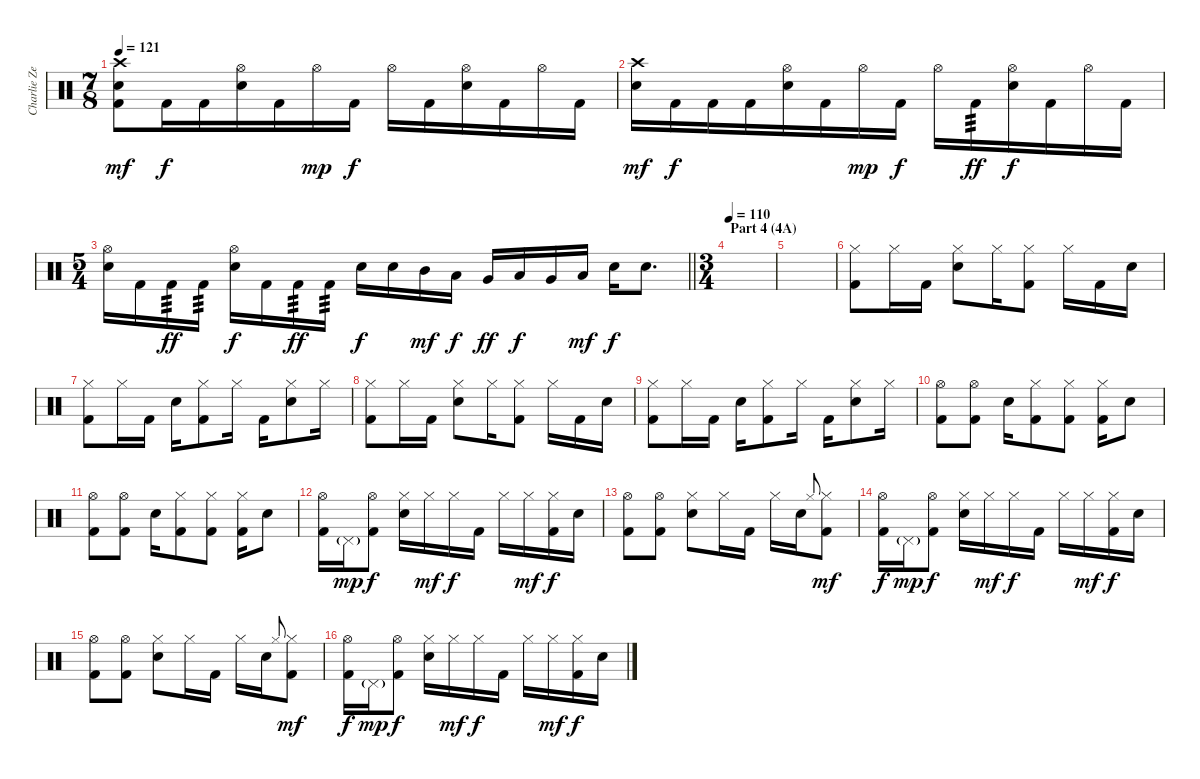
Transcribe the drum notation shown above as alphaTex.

\track ("Charlie Zeleny - Drums" "Charlie Ze") {instrument percussion}
\staff {score}
\articulation defaults
\ts (7 8)
\tempo 121
\clef neutral
\ks c
("Crash high (hit)" "Electric Snare (hit)" "Kick (hit) 2").8{dy mf} "Kick (hit) 2".16{dy f} "Kick (hit) 2".16 ("Hi-Hat (open)" "Electric Snare (hit)").16 "Kick (hit) 2".16 "Hi-Hat (open)".16{dy mp} "Kick (hit) 2".16{dy f} "Hi-Hat (open)".16 "Kick (hit) 2".16 ("Hi-Hat (open)" "Electric Snare (hit)").16 "Kick (hit) 2".16 "Hi-Hat (open)".16 "Kick (hit) 2".16 |
("Crash high (hit)" "Electric Snare (hit)").16{dy mf} "Kick (hit) 2".16{dy f} "Kick (hit) 2".16 "Kick (hit) 2".16 ("Hi-Hat (open)" "Electric Snare (hit)").16 "Kick (hit) 2".16 "Hi-Hat (open)".16{dy mp} "Kick (hit) 2".16{dy f} "Hi-Hat (open)".16 "Kick (hit) 2".16{tp 3 dy ff} ("Hi-Hat (open)" "Electric Snare (hit)").16{dy f} "Kick (hit) 2".16 "Hi-Hat (open)".16 "Kick (hit) 2".16 |
\ts (5 4)
\barLineRight lightlight
("Hi-Hat (open)" "Electric Snare (hit)").16 "Kick (hit) 2".16 "Kick (hit) 2".16{tp 3 dy ff} "Kick (hit) 2".16{tp 3} ("Hi-Hat (open)" "Electric Snare (hit)").16{dy f} "Kick (hit) 2".16 "Kick (hit) 2".16{tp 3 dy ff} "Kick (hit) 2".16{tp 3} "Electric Snare (hit)".16{dy f} "Electric Snare (hit)".16 "Mid Tom (hit)".16{dy mf} "Low Tom (hit)".16{dy f} "Very Low Tom (hit)".16{dy ff} "Low Floor Tom (hit)".16{dy f} "Very Low Tom (hit)".16 "Low Tom (hit)".16{dy mf} "Electric Snare (hit)".16{dy f} "Electric Snare (hit)".8{d} |
\ts (3 4)
\section ("" "Part 4 (4A)")
\tempo 110
|
|
("Hi-Hat (closed)" "Kick (hit) 2").8 "Hi-Hat (closed)".16 "Kick (hit) 2".16 ("Hi-Hat (closed)" "Electric Snare (hit)").8 "Hi-Hat (closed)".16 ("Hi-Hat (closed)" "Kick (hit) 2").8 "Hi-Hat (closed)".16 "Kick (hit) 2".16 "Electric Snare (hit)".16 |
("Hi-Hat (closed)" "Kick (hit) 2").8 "Hi-Hat (closed)".16 "Kick (hit) 2".16 "Electric Snare (hit)".16 ("Hi-Hat (closed)" "Kick (hit) 2").8 "Hi-Hat (closed)".16 "Kick (hit) 2".16 ("Hi-Hat (closed)" "Electric Snare (hit)").8 "Hi-Hat (closed)".16 |
("Hi-Hat (closed)" "Kick (hit) 2").8 "Hi-Hat (closed)".16 "Kick (hit) 2".16 ("Hi-Hat (closed)" "Electric Snare (hit)").8 "Hi-Hat (closed)".16 ("Hi-Hat (closed)" "Kick (hit) 2").8 "Hi-Hat (closed)".16 "Kick (hit) 2".16 "Electric Snare (hit)".16 |
("Hi-Hat (closed)" "Kick (hit) 2").8 "Hi-Hat (closed)".16 "Kick (hit) 2".16 "Electric Snare (hit)".16 ("Hi-Hat (closed)" "Kick (hit) 2").8 "Hi-Hat (closed)".16 "Kick (hit) 2".16 ("Hi-Hat (closed)" "Electric Snare (hit)").8 "Hi-Hat (closed)".16 |
("Hi-Hat (open)" "Kick (hit) 2").8 ("Hi-Hat (open)" "Kick (hit) 2").8 "Electric Snare (hit)".16 ("Hi-Hat (closed)" "Kick (hit) 2").8 ("Hi-Hat (closed)" "Kick (hit) 2").8 ("Hi-Hat (closed)" "Kick (hit) 2").16 "Electric Snare (hit)".8 |
("Hi-Hat (open)" "Kick (hit) 2").8 ("Hi-Hat (open)" "Kick (hit) 2").8 "Electric Snare (hit)".16 ("Hi-Hat (closed)" "Kick (hit) 2").8 ("Hi-Hat (closed)" "Kick (hit) 2").8 ("Hi-Hat (closed)" "Kick (hit) 2").16 "Electric Snare (hit)".8 |
("Hi-Hat (open)" "Kick (hit) 2").16 "Pedal Hi-Hat (hit)"{g}.16{dy mp} ("Hi-Hat (open)" "Kick (hit) 2").8{dy f} ("Hi-Hat (closed)" "Electric Snare (hit)").16 "Hi-Hat (closed)".16{dy mf} "Hi-Hat (closed)".16{dy f} "Kick (hit) 2".16 "Hi-Hat (closed)".16 "Hi-Hat (closed)".16{dy mf} ("Hi-Hat (closed)" "Kick (hit) 2").16{dy f} "Electric Snare (hit)".16 |
("Hi-Hat (open)" "Kick (hit) 2").8 ("Hi-Hat (open)" "Kick (hit) 2").8 ("Hi-Hat (closed)" "Electric Snare (hit)").8 "Hi-Hat (closed)".16 "Kick (hit) 2".16 "Hi-Hat (closed)".16 "Electric Snare (hit)".16 "Hi-Hat (closed)".8{gr onbeat} ("Hi-Hat (closed)" "Kick (hit) 2").8{dy mf} |
("Hi-Hat (open)" "Kick (hit) 2").16{dy f} "Pedal Hi-Hat (hit)"{g}.16{dy mp} ("Hi-Hat (open)" "Kick (hit) 2").8{dy f} ("Hi-Hat (closed)" "Electric Snare (hit)").16 "Hi-Hat (closed)".16{dy mf} "Hi-Hat (closed)".16{dy f} "Kick (hit) 2".16 "Hi-Hat (closed)".16 "Hi-Hat (closed)".16{dy mf} ("Hi-Hat (closed)" "Kick (hit) 2").16{dy f} "Electric Snare (hit)".16 |
("Hi-Hat (open)" "Kick (hit) 2").8 ("Hi-Hat (open)" "Kick (hit) 2").8 ("Hi-Hat (closed)" "Electric Snare (hit)").8 "Hi-Hat (closed)".16 "Kick (hit) 2".16 "Hi-Hat (closed)".16 "Electric Snare (hit)".16 "Hi-Hat (closed)".8{gr onbeat} ("Hi-Hat (closed)" "Kick (hit) 2").8{dy mf} |
("Hi-Hat (open)" "Kick (hit) 2").16{dy f} "Pedal Hi-Hat (hit)"{g}.16{dy mp} ("Hi-Hat (open)" "Kick (hit) 2").8{dy f} ("Hi-Hat (closed)" "Electric Snare (hit)").16 "Hi-Hat (closed)".16{dy mf} "Hi-Hat (closed)".16{dy f} "Kick (hit) 2".16 "Hi-Hat (closed)".16 "Hi-Hat (closed)".16{dy mf} ("Hi-Hat (closed)" "Kick (hit) 2").16{dy f} "Electric Snare (hit)".16
